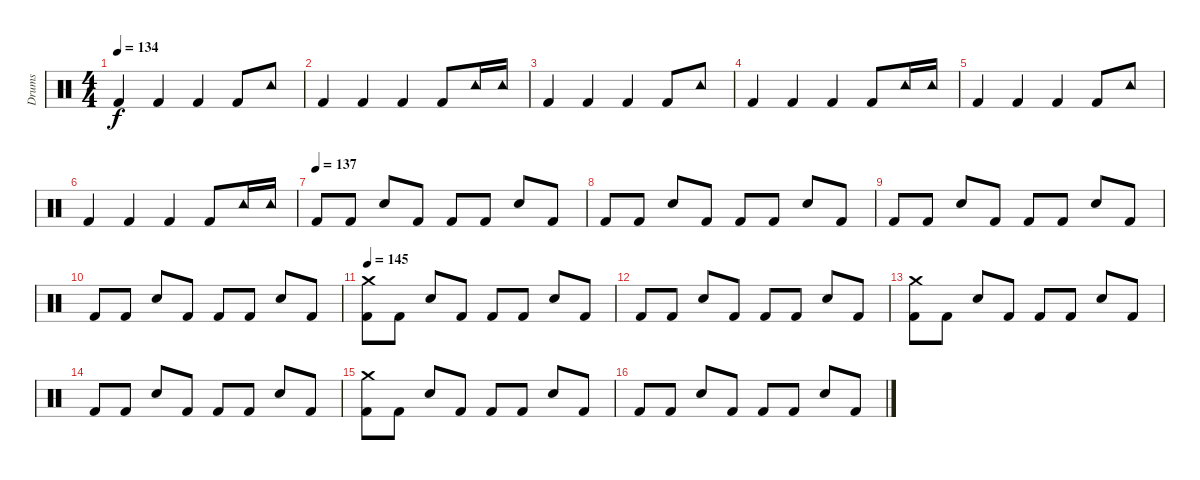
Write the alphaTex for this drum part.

\track ("Drums" "Drums") {instrument percussion}
\staff {score}
\articulation defaults
\ts (4 4)
\tempo 134
\clef neutral
\ks c "Kick (hit) 2".4{dy f} "Kick (hit) 2".4 "Kick (hit) 2".4 "Kick (hit) 2".8 "Tambourine (hit)".8
|
"Kick (hit) 2".4 "Kick (hit) 2".4 "Kick (hit) 2".4 "Kick (hit) 2".8 "Tambourine (hit)".16 "Tambourine (hit)".16 |
"Kick (hit) 2".4 "Kick (hit) 2".4 "Kick (hit) 2".4 "Kick (hit) 2".8 "Tambourine (hit)".8 |
"Kick (hit) 2".4 "Kick (hit) 2".4 "Kick (hit) 2".4 "Kick (hit) 2".8 "Tambourine (hit)".16 "Tambourine (hit)".16 |
"Kick (hit) 2".4 "Kick (hit) 2".4 "Kick (hit) 2".4 "Kick (hit) 2".8 "Tambourine (hit)".8 |
"Kick (hit) 2".4 "Kick (hit) 2".4 "Kick (hit) 2".4 "Kick (hit) 2".8 "Tambourine (hit)".16 "Tambourine (hit)".16 |
\tempo (137)
"Kick (hit) 2".8 "Kick (hit) 2".8 "Snare (hit) 2".8 "Kick (hit) 2".8 "Kick (hit) 2".8 "Kick (hit) 2".8 "Snare (hit) 2".8 "Kick (hit) 2".8 |
"Kick (hit) 2".8 "Kick (hit) 2".8 "Snare (hit) 2".8 "Kick (hit) 2".8 "Kick (hit) 2".8 "Kick (hit) 2".8 "Snare (hit) 2".8 "Kick (hit) 2".8 |
"Kick (hit) 2".8 "Kick (hit) 2".8 "Snare (hit) 2".8 "Kick (hit) 2".8 "Kick (hit) 2".8 "Kick (hit) 2".8 "Snare (hit) 2".8 "Kick (hit) 2".8 |
"Kick (hit) 2".8 "Kick (hit) 2".8 "Snare (hit) 2".8 "Kick (hit) 2".8 "Kick (hit) 2".8 "Kick (hit) 2".8 "Snare (hit) 2".8 "Kick (hit) 2".8 |
\tempo 145
("Crash medium (hit)" "Kick (hit) 2").8 "Kick (hit) 2".8 "Snare (hit) 2".8 "Kick (hit) 2".8 "Kick (hit) 2".8 "Kick (hit) 2".8 "Snare (hit) 2".8 "Kick (hit) 2".8 |
"Kick (hit) 2".8 "Kick (hit) 2".8 "Snare (hit) 2".8 "Kick (hit) 2".8 "Kick (hit) 2".8 "Kick (hit) 2".8 "Snare (hit) 2".8 "Kick (hit) 2".8 |
("Crash medium (hit)" "Kick (hit) 2").8 "Kick (hit) 2".8 "Snare (hit) 2".8 "Kick (hit) 2".8 "Kick (hit) 2".8 "Kick (hit) 2".8 "Snare (hit) 2".8 "Kick (hit) 2".8 |
"Kick (hit) 2".8 "Kick (hit) 2".8 "Snare (hit) 2".8 "Kick (hit) 2".8 "Kick (hit) 2".8 "Kick (hit) 2".8 "Snare (hit) 2".8 "Kick (hit) 2".8 |
("Crash medium (hit)" "Kick (hit) 2").8 "Kick (hit) 2".8 "Snare (hit) 2".8 "Kick (hit) 2".8 "Kick (hit) 2".8 "Kick (hit) 2".8 "Snare (hit) 2".8 "Kick (hit) 2".8 |
"Kick (hit) 2".8 "Kick (hit) 2".8 "Snare (hit) 2".8 "Kick (hit) 2".8 "Kick (hit) 2".8 "Kick (hit) 2".8 "Snare (hit) 2".8 "Kick (hit) 2".8
